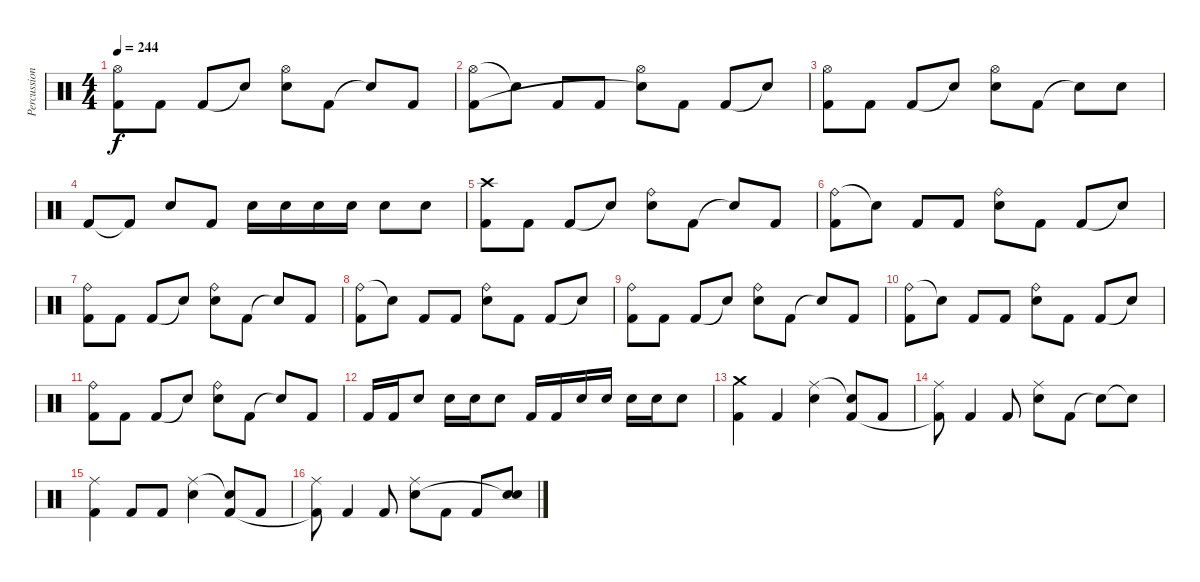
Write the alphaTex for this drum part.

\track ("Percussions" "Percussion") {instrument percussion}
\staff {score}
\articulation defaults
\ts (4 4)
\tempo 244
\clef neutral
\ks c
("Hi-Hat (open)" "Kick (hit) 2").8{dy f} "Kick (hit) 2".8 "Kick (hit) 2".8 "Snare (hit)"{t}.8 ("Hi-Hat (open)" "Electric Snare (hit)").8 "Kick (hit) 2".8 "Snare (hit)"{t}.8 "Kick (hit) 2".8 |
("Hi-Hat (open)" "Kick (hit) 2").8 "Snare (hit)"{t}.8 "Kick (hit) 2".8 "Kick (hit) 2".8 ("Hi-Hat (open)" "Snare (hit)"{t}).8 "Kick (hit) 2".8 "Kick (hit) 2".8 "Snare (hit)"{t}.8 |
("Hi-Hat (open)" "Kick (hit) 2").8 "Kick (hit) 2".8 "Kick (hit) 2".8 "Snare (hit)"{t}.8 ("Hi-Hat (open)" "Electric Snare (hit)").8 "Kick (hit) 2".8 "Snare (hit)"{t}.8 "Electric Snare (hit)".8 |
"Kick (hit) 2".8 "Kick (hit) 2"{t}.8 "Electric Snare (hit)".8 "Kick (hit) 2".8 "Electric Snare (hit)".16 "Electric Snare (hit)".16 "Electric Snare (hit)".16 "Electric Snare (hit)".16 "Electric Snare (hit)".8 "Electric Snare (hit)".8 |
("Crash high (hit)" "Kick (hit) 2").8 "Kick (hit) 2".8 "Kick (hit) 2".8 "Snare (hit)"{t}.8 ("Ride (bell)" "Electric Snare (hit)").8 "Kick (hit) 2".8 "Snare (hit)"{t}.8 "Kick (hit) 2".8 |
("Ride (bell)" "Kick (hit) 2").8 "Snare (hit)"{t}.8 "Kick (hit) 2".8 "Kick (hit) 2".8 ("Ride (bell)" "Electric Snare (hit)").8 "Kick (hit) 2".8 "Kick (hit) 2".8 "Snare (hit)"{t}.8 |
("Ride (bell)" "Kick (hit) 2").8 "Kick (hit) 2".8 "Kick (hit) 2".8 "Snare (hit)"{t}.8 ("Ride (bell)" "Electric Snare (hit)").8 "Kick (hit) 2".8 "Snare (hit)"{t}.8 "Kick (hit) 2".8 |
("Ride (bell)" "Kick (hit) 2").8 "Snare (hit)"{t}.8 "Kick (hit) 2".8 "Kick (hit) 2".8 ("Ride (bell)" "Electric Snare (hit)").8 "Kick (hit) 2".8 "Kick (hit) 2".8 "Snare (hit)"{t}.8 |
("Ride (bell)" "Kick (hit) 2").8 "Kick (hit) 2".8 "Kick (hit) 2".8 "Snare (hit)"{t}.8 ("Ride (bell)" "Electric Snare (hit)").8 "Kick (hit) 2".8 "Snare (hit)"{t}.8 "Kick (hit) 2".8 |
("Ride (bell)" "Kick (hit) 2").8 "Snare (hit)"{t}.8 "Kick (hit) 2".8 "Kick (hit) 2".8 ("Ride (bell)" "Electric Snare (hit)").8 "Kick (hit) 2".8 "Kick (hit) 2".8 "Snare (hit)"{t}.8 |
("Ride (bell)" "Kick (hit) 2").8 "Kick (hit) 2".8 "Kick (hit) 2".8 "Snare (hit)"{t}.8 ("Ride (bell)" "Electric Snare (hit)").8 "Kick (hit) 2".8 "Snare (hit)"{t}.8 "Kick (hit) 2".8 |
"Kick (hit) 2".16 "Kick (hit) 2".16 "Electric Snare (hit)".8 "Electric Snare (hit)".16 "Electric Snare (hit)".16 "Electric Snare (hit)".8 "Kick (hit) 2".16 "Kick (hit) 2".16 "Electric Snare (hit)".16 "Electric Snare (hit)".16 "Electric Snare (hit)".16 "Electric Snare (hit)".16 "Electric Snare (hit)".8 |
("Crash medium (hit)" "Kick (hit) 2").4 "Kick (hit) 2".4 ("Ride (middle)" "Electric Snare (hit)").4 ("Snare (hit)"{t} "Kick (hit) 2").8 "Kick (hit) 2".8 |
("Ride (middle)" "Kick (hit) 2"{t}).8 "Kick (hit) 2".4 "Kick (hit) 2".8 ("Ride (middle)" "Electric Snare (hit)").8 "Kick (hit) 2".8 "Snare (hit)"{t}.8 "Snare (hit)"{t}.8 |
("Ride (middle)" "Kick (hit) 2").4 "Kick (hit) 2".8 "Kick (hit) 2".8 ("Ride (middle)" "Electric Snare (hit)").4 ("Snare (hit)"{t} "Kick (hit) 2").8 "Kick (hit) 2".8 |
("Ride (middle)" "Kick (hit) 2"{t}).8 "Kick (hit) 2".4 "Kick (hit) 2".8 ("Ride (middle)" "Electric Snare (hit)").8 "Kick (hit) 2".8 "Kick (hit) 2".8 ("Electric Snare (hit)" "Snare (hit)"{t}).8
